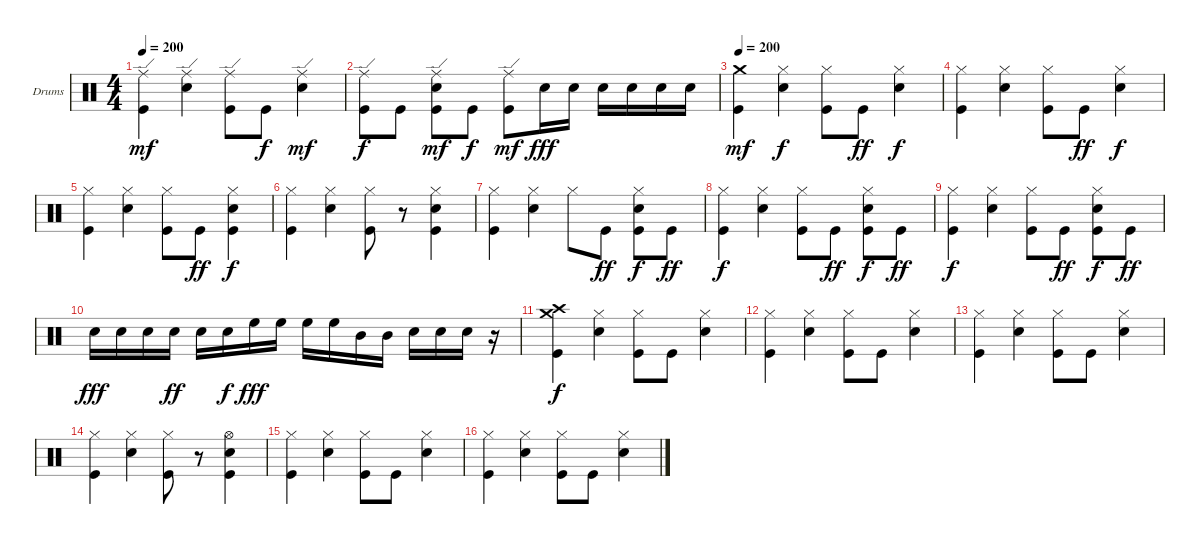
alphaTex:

\bracketExtendMode groupsimilarinstruments
\firstSystemTrackNameOrientation horizontal
\otherSystemsTrackNameOrientation horizontal
\track ("Drumkit" "Drums") {instrument percussion}
\staff {score}
\articulation defaults
\ts (4 4)
\tempo 200
\clef neutral
\ks c
("Ride (edge)" "Kick (hit)").4{dy mf} ("Ride (edge)" "Snare (hit) 2").4 ("Ride (edge)" "Kick (hit)").8 "Kick (hit)".8{dy f} ("Ride (edge)" "Snare (hit) 2").4{dy mf} |
("Ride (edge)" "Kick (hit)").8{dy f} "Kick (hit)".8 ("Ride (edge)" "Snare (hit) 2" "Kick (hit)").8{dy mf} "Kick (hit)".8{dy f} ("Ride (edge)" "Kick (hit)").8{dy mf} "Snare (hit) 2".16{dy fff} "Snare (hit) 2".16 "Snare (hit) 2".16 "Snare (hit) 2".16 "Snare (hit) 2".16 "Snare (hit) 2".16 |
\tempo 200
("Crash medium (hit)" "Kick (hit)").4{dy mf} ("Hi-Hat (closed)" "Snare (hit) 2").4{dy f} ("Hi-Hat (closed)" "Kick (hit)").8 "Kick (hit)".8{dy ff} ("Hi-Hat (closed)" "Snare (hit) 2").4{dy f} |
("Hi-Hat (closed)" "Kick (hit)").4 ("Hi-Hat (closed)" "Snare (hit) 2").4 ("Hi-Hat (closed)" "Kick (hit)").8 "Kick (hit)".8{dy ff} ("Hi-Hat (closed)" "Snare (hit) 2").4{dy f} |
("Hi-Hat (closed)" "Kick (hit)").4 ("Hi-Hat (closed)" "Snare (hit) 2").4 ("Hi-Hat (closed)" "Kick (hit)").8 "Kick (hit)".8{dy ff} ("Hi-Hat (closed)" "Snare (hit) 2" "Kick (hit)").4{dy f} |
("Hi-Hat (closed)" "Kick (hit)").4 ("Hi-Hat (closed)" "Snare (hit) 2").4 ("Hi-Hat (closed)" "Kick (hit)").8 r.8 ("Hi-Hat (closed)" "Snare (hit) 2" "Kick (hit)").4 |
("Hi-Hat (closed)" "Kick (hit)").4 ("Hi-Hat (closed)" "Snare (hit) 2").4 "Hi-Hat (closed)".8 "Kick (hit)".8{dy ff} ("Hi-Hat (closed)" "Snare (hit) 2" "Kick (hit)").8{dy f} "Kick (hit)".8{dy ff} |
("Hi-Hat (closed)" "Kick (hit)").4{dy f} ("Hi-Hat (closed)" "Snare (hit) 2").4 ("Hi-Hat (closed)" "Kick (hit)").8 "Kick (hit)".8{dy ff} ("Hi-Hat (closed)" "Snare (hit) 2" "Kick (hit)").8{dy f} "Kick (hit)".8{dy ff} |
("Hi-Hat (closed)" "Kick (hit)").4{dy f} ("Hi-Hat (closed)" "Snare (hit) 2").4 ("Hi-Hat (closed)" "Kick (hit)").8 "Kick (hit)".8{dy ff} ("Hi-Hat (closed)" "Snare (hit) 2" "Kick (hit)").8{dy f} "Kick (hit)".8{dy ff} |
"Snare (hit) 2".16{dy fff} "Snare (hit) 2".16 "Snare (hit) 2".16 "Snare (hit) 2".16{dy ff} "Snare (hit) 2".16 "Snare (hit) 2".16{dy f} "High Floor Tom (hit)".16{dy fff} "High Floor Tom (hit)".16 "High Floor Tom (hit)".16 "High Floor Tom (hit)".16 "Mid Tom (hit)".16 "Mid Tom (hit)".16 "Snare (hit) 2".16 "Snare (hit) 2".16 "Snare (hit) 2".16 r.16 |
("Crash medium (hit)" "Crash high (hit)" "Kick (hit)").4{dy f} ("Hi-Hat (closed)" "Snare (hit) 2").4 ("Hi-Hat (closed)" "Kick (hit)").8 "Kick (hit)".8 ("Hi-Hat (closed)" "Snare (hit) 2").4 |
("Hi-Hat (closed)" "Kick (hit)").4 ("Hi-Hat (closed)" "Snare (hit) 2").4 ("Hi-Hat (closed)" "Kick (hit)").8 "Kick (hit)".8 ("Hi-Hat (closed)" "Snare (hit) 2").4 |
("Hi-Hat (closed)" "Kick (hit)").4 ("Hi-Hat (closed)" "Snare (hit) 2").4 ("Hi-Hat (closed)" "Kick (hit)").8 "Kick (hit)".8 ("Hi-Hat (closed)" "Snare (hit) 2").4 |
("Hi-Hat (closed)" "Kick (hit)").4 ("Hi-Hat (closed)" "Snare (hit) 2").4 ("Hi-Hat (closed)" "Kick (hit)").8 r.8 ("Hi-Hat (open)" "Snare (hit) 2" "Kick (hit)").4 |
("Hi-Hat (closed)" "Kick (hit)").4 ("Hi-Hat (closed)" "Snare (hit) 2").4 ("Hi-Hat (closed)" "Kick (hit)").8 "Kick (hit)".8 ("Hi-Hat (closed)" "Snare (hit) 2").4 |
("Hi-Hat (closed)" "Kick (hit)").4 ("Hi-Hat (closed)" "Snare (hit) 2").4 ("Hi-Hat (closed)" "Kick (hit)").8 "Kick (hit)".8 ("Hi-Hat (closed)" "Snare (hit) 2").4
